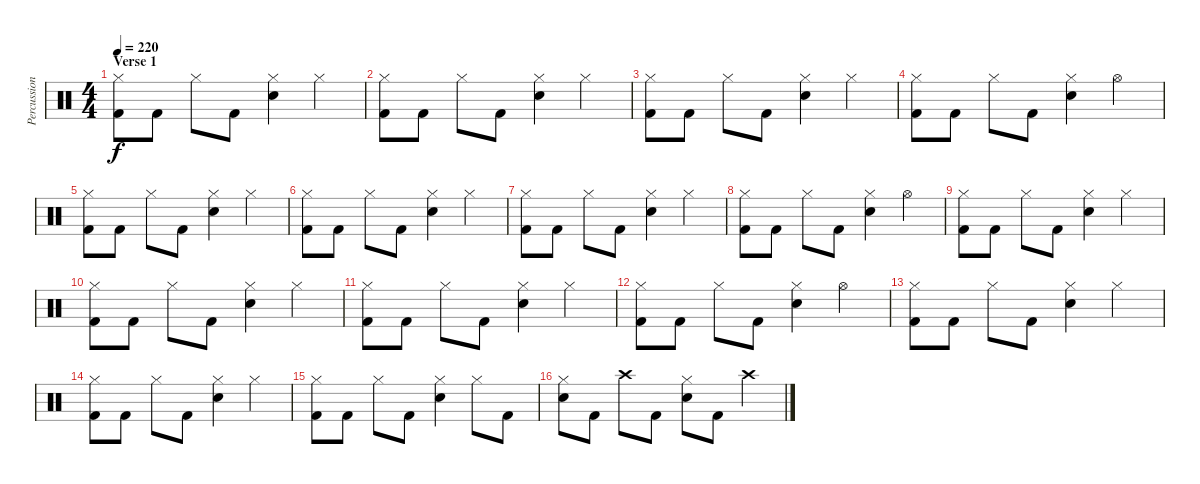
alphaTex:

\track ("Percussion" "Percussion") {instrument percussion}
\staff {score}
\articulation defaults
\ts (4 4)
\section ("" "Verse 1")
\tempo 220
\clef neutral
\ks c
("Hi-Hat (closed)" "Kick (hit) 2").8{dy f} "Kick (hit) 2".8 "Hi-Hat (closed)".8 "Kick (hit) 2".8 ("Hi-Hat (closed)" "Snare (hit) 2").4 "Hi-Hat (closed)".4 |
("Hi-Hat (closed)" "Kick (hit) 2").8 "Kick (hit) 2".8 "Hi-Hat (closed)".8 "Kick (hit) 2".8 ("Hi-Hat (closed)" "Snare (hit) 2").4 "Hi-Hat (closed)".4 |
("Hi-Hat (closed)" "Kick (hit) 2").8 "Kick (hit) 2".8 "Hi-Hat (closed)".8 "Kick (hit) 2".8 ("Hi-Hat (closed)" "Snare (hit) 2").4 "Hi-Hat (closed)".4 |
("Hi-Hat (closed)" "Kick (hit) 2").8 "Kick (hit) 2".8 "Hi-Hat (closed)".8 "Kick (hit) 2".8 ("Hi-Hat (closed)" "Snare (hit) 2").4 "Hi-Hat (open)".4 |
("Hi-Hat (closed)" "Kick (hit) 2").8 "Kick (hit) 2".8 "Hi-Hat (closed)".8 "Kick (hit) 2".8 ("Hi-Hat (closed)" "Snare (hit) 2").4 "Hi-Hat (closed)".4 |
("Hi-Hat (closed)" "Kick (hit) 2").8 "Kick (hit) 2".8 "Hi-Hat (closed)".8 "Kick (hit) 2".8 ("Hi-Hat (closed)" "Snare (hit) 2").4 "Hi-Hat (closed)".4 |
("Hi-Hat (closed)" "Kick (hit) 2").8 "Kick (hit) 2".8 "Hi-Hat (closed)".8 "Kick (hit) 2".8 ("Hi-Hat (closed)" "Snare (hit) 2").4 "Hi-Hat (closed)".4 |
("Hi-Hat (closed)" "Kick (hit) 2").8 "Kick (hit) 2".8 "Hi-Hat (closed)".8 "Kick (hit) 2".8 ("Hi-Hat (closed)" "Snare (hit) 2").4 "Hi-Hat (open)".4 |
("Hi-Hat (closed)" "Kick (hit) 2").8 "Kick (hit) 2".8 "Hi-Hat (closed)".8 "Kick (hit) 2".8 ("Hi-Hat (closed)" "Snare (hit) 2").4 "Hi-Hat (closed)".4 |
("Hi-Hat (closed)" "Kick (hit) 2").8 "Kick (hit) 2".8 "Hi-Hat (closed)".8 "Kick (hit) 2".8 ("Hi-Hat (closed)" "Snare (hit) 2").4 "Hi-Hat (closed)".4 |
("Hi-Hat (closed)" "Kick (hit) 2").8 "Kick (hit) 2".8 "Hi-Hat (closed)".8 "Kick (hit) 2".8 ("Hi-Hat (closed)" "Snare (hit) 2").4 "Hi-Hat (closed)".4 |
("Hi-Hat (closed)" "Kick (hit) 2").8 "Kick (hit) 2".8 "Hi-Hat (closed)".8 "Kick (hit) 2".8 ("Hi-Hat (closed)" "Snare (hit) 2").4 "Hi-Hat (open)".4 |
("Hi-Hat (closed)" "Kick (hit) 2").8 "Kick (hit) 2".8 "Hi-Hat (closed)".8 "Kick (hit) 2".8 ("Hi-Hat (closed)" "Snare (hit) 2").4 "Hi-Hat (closed)".4 |
("Hi-Hat (closed)" "Kick (hit) 2").8 "Kick (hit) 2".8 "Hi-Hat (closed)".8 "Kick (hit) 2".8 ("Hi-Hat (closed)" "Snare (hit) 2").4 "Hi-Hat (closed)".4 |
("Hi-Hat (closed)" "Kick (hit) 2").8 "Kick (hit) 2".8 "Hi-Hat (closed)".8 "Kick (hit) 2".8 ("Hi-Hat (closed)" "Snare (hit) 2").4 "Hi-Hat (closed)".8 "Kick (hit) 2".8 |
("Hi-Hat (closed)" "Snare (hit) 2").8 "Kick (hit) 2".8 "Crash high (hit)".8 "Kick (hit) 2".8 ("Hi-Hat (closed)" "Snare (hit) 2").8 "Kick (hit) 2".8 "Crash high (hit)".4
